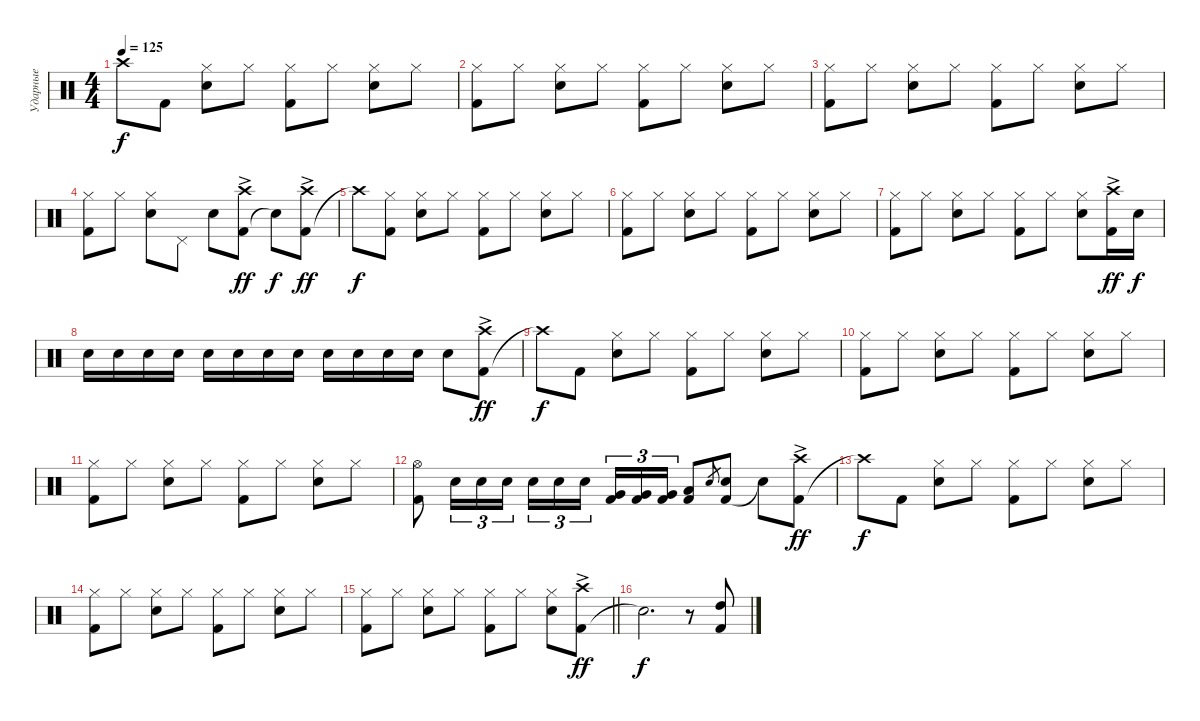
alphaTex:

\track ("Ударные" "Ударные") {instrument percussion}
\staff
\articulation defaults
\ts (4 4)
\tempo 125
\clef neutral
\ks c "Crash high (hit)"{t}.8{dy f} "Kick (hit) 2".8
("Snare (hit) 2" "Hi-Hat (closed)").8 "Hi-Hat (closed)".8 ("Kick (hit) 2" "Hi-Hat (closed)").8 "Hi-Hat (closed)".8 ("Snare (hit) 2" "Hi-Hat (closed)").8 "Hi-Hat (closed)".8 |
("Kick (hit) 2" "Hi-Hat (closed)").8 "Hi-Hat (closed)".8 ("Snare (hit) 2" "Hi-Hat (closed)").8 "Hi-Hat (closed)".8 ("Kick (hit) 2" "Hi-Hat (closed)").8 "Hi-Hat (closed)".8 ("Snare (hit) 2" "Hi-Hat (closed)").8 "Hi-Hat (closed)".8 |
("Kick (hit) 2" "Hi-Hat (closed)").8 "Hi-Hat (closed)".8 ("Snare (hit) 2" "Hi-Hat (closed)").8 "Hi-Hat (closed)".8 ("Kick (hit) 2" "Hi-Hat (closed)").8 "Hi-Hat (closed)".8 ("Snare (hit) 2" "Hi-Hat (closed)").8 "Hi-Hat (closed)".8 |
("Kick (hit) 2" "Hi-Hat (closed)").8 "Hi-Hat (closed)".8 ("Snare (hit) 2" "Hi-Hat (closed)").8 "Pedal Hi-Hat (hit)".8 "Snare (hit) 2".8 ("Kick (hit) 2" "Crash high (hit)"{ac}).8{dy ff} "Snare (hit)"{t}.8{dy f} ("Kick (hit) 2" "Crash high (hit)"{ac}).8{dy ff} |
"Crash high (hit)"{t}.8{dy f} ("Kick (hit) 2" "Hi-Hat (closed)").8 ("Snare (hit) 2" "Hi-Hat (closed)").8 "Hi-Hat (closed)".8 ("Kick (hit) 2" "Hi-Hat (closed)").8 "Hi-Hat (closed)".8 ("Snare (hit) 2" "Hi-Hat (closed)").8 "Hi-Hat (closed)".8 |
("Kick (hit) 2" "Hi-Hat (closed)").8 "Hi-Hat (closed)".8 ("Snare (hit) 2" "Hi-Hat (closed)").8 "Hi-Hat (closed)".8 ("Kick (hit) 2" "Hi-Hat (closed)").8 "Hi-Hat (closed)".8 ("Snare (hit) 2" "Hi-Hat (closed)").8 "Hi-Hat (closed)".8 |
("Kick (hit) 2" "Hi-Hat (closed)").8 "Hi-Hat (closed)".8 ("Snare (hit) 2" "Hi-Hat (closed)").8 "Hi-Hat (closed)".8 ("Kick (hit) 2" "Hi-Hat (closed)").8 "Hi-Hat (closed)".8 ("Snare (hit) 2" "Hi-Hat (closed)").8 ("Kick (hit) 2" "Crash high (hit)"{ac}).16{dy ff} "Electric Snare (hit)".16{dy f} |
"Electric Snare (hit)".16 "Electric Snare (hit)".16 "Snare (hit) 2".16 "Electric Snare (hit)".16 "Electric Snare (hit)".16 "Electric Snare (hit)".16 "Snare (hit) 2".16 "Snare (hit) 2".16 "Snare (hit) 2".16 "Snare (hit) 2".16 "Snare (hit) 2".16 "Snare (hit) 2".16 "Snare (hit) 2".8 ("Kick (hit) 2" "Crash high (hit)"{ac}).8{dy ff} |
"Crash high (hit)"{t}.8{dy f} "Kick (hit) 2".8 ("Snare (hit) 2" "Hi-Hat (closed)").8 "Hi-Hat (closed)".8 ("Kick (hit) 2" "Hi-Hat (closed)").8 "Hi-Hat (closed)".8 ("Snare (hit) 2" "Hi-Hat (closed)").8 "Hi-Hat (closed)".8 |
("Kick (hit) 2" "Hi-Hat (closed)").8 "Hi-Hat (closed)".8 ("Snare (hit) 2" "Hi-Hat (closed)").8 "Hi-Hat (closed)".8 ("Kick (hit) 2" "Hi-Hat (closed)").8 "Hi-Hat (closed)".8 ("Snare (hit) 2" "Hi-Hat (closed)").8 "Hi-Hat (closed)".8 |
("Kick (hit) 2" "Hi-Hat (closed)").8 "Hi-Hat (closed)".8 ("Snare (hit) 2" "Hi-Hat (closed)").8 "Hi-Hat (closed)".8 ("Kick (hit) 2" "Hi-Hat (closed)").8 "Hi-Hat (closed)".8 ("Snare (hit) 2" "Hi-Hat (closed)").8 "Hi-Hat (closed)".8 |
("Kick (hit) 2" "Hi-Hat (open)").8 "Snare (hit) 2".16{tu (3 2)} "Snare (hit) 2".16{tu (3 2)} "Snare (hit) 2".16{tu (3 2)} "Snare (hit) 2".16{tu (3 2)} "Snare (hit) 2".16{tu (3 2)} "Snare (hit) 2".16{tu (3 2) beam splitsecondary} ("Kick (hit) 2" "Very Low Tom (hit)").16{tu (3 2)} ("Kick (hit) 2" "Very Low Tom (hit)").16{tu (3 2)} ("Kick (hit) 2" "Very Low Tom (hit)").16{tu (3 2)} ("Kick (hit) 2" "Low Tom (hit)").8 "Electric Snare (hit)".8{gr} ("Kick (hit) 2" "Electric Snare (hit)").8 "Snare (hit)"{t}.8 ("Kick (hit) 2" "Crash high (hit)"{ac}).8{dy ff} |
"Crash high (hit)"{t}.8{dy f} "Kick (hit) 2".8 ("Snare (hit) 2" "Hi-Hat (closed)").8 "Hi-Hat (closed)".8 ("Kick (hit) 2" "Hi-Hat (closed)").8 "Hi-Hat (closed)".8 ("Snare (hit) 2" "Hi-Hat (closed)").8 "Hi-Hat (closed)".8 |
("Kick (hit) 2" "Hi-Hat (closed)").8 "Hi-Hat (closed)".8 ("Snare (hit) 2" "Hi-Hat (closed)").8 "Hi-Hat (closed)".8 ("Kick (hit) 2" "Hi-Hat (closed)").8 "Hi-Hat (closed)".8 ("Snare (hit) 2" "Hi-Hat (closed)").8 "Hi-Hat (closed)".8 |
\barLineRight lightlight
("Kick (hit) 2" "Hi-Hat (closed)").8 "Hi-Hat (closed)".8 ("Snare (hit) 2" "Hi-Hat (closed)").8 "Hi-Hat (closed)".8 ("Kick (hit) 2" "Hi-Hat (closed)").8 "Hi-Hat (closed)".8 ("Snare (hit) 2" "Hi-Hat (closed)").8 ("Kick (hit) 2" "Crash high (hit)"{ac}).8{dy ff} |
"Snare (hit)"{t}.2{d dy f} r.8 ("Kick (hit) 2" "High Tom (hit)").8
